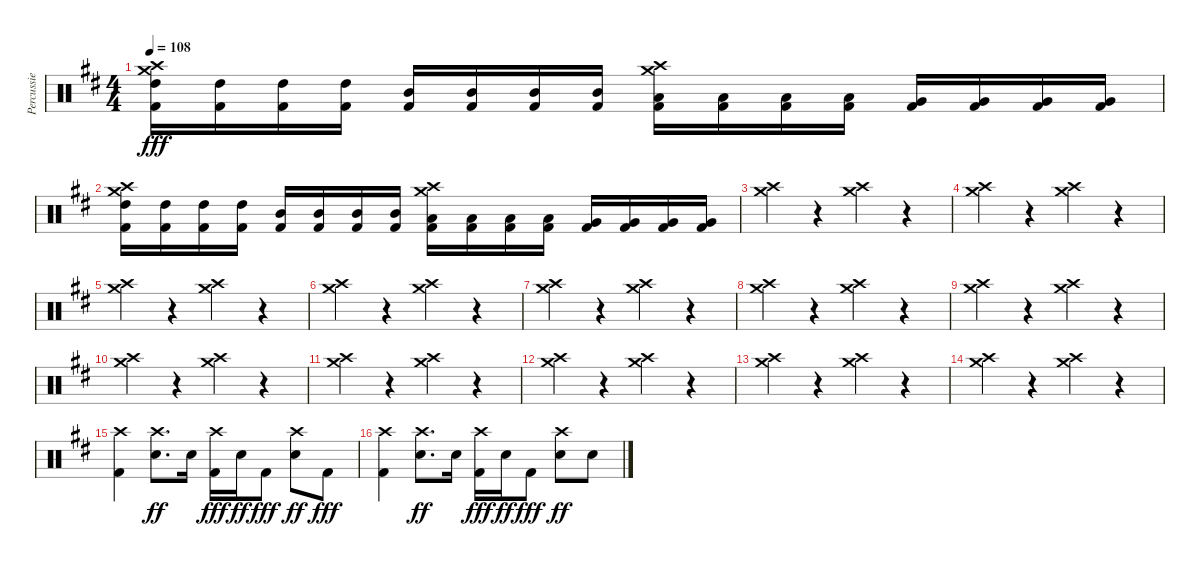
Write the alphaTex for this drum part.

\track ("Percussie" "Percussie") {instrument percussion}
\staff {score}
\articulation defaults
\ts (4 4)
\tempo 108
\clef neutral
\ks d
("Crash high (hit)" "Crash medium (hit)" "High Tom (hit)" "Kick (hit) 2").16{dy fff} ("High Tom (hit)" "Kick (hit) 2").16 ("High Tom (hit)" "Kick (hit) 2").16 ("High Tom (hit)" "Kick (hit) 2").16 ("Mid Tom (hit)" "Kick (hit) 2").16 ("Mid Tom (hit)" "Kick (hit) 2").16 ("Mid Tom (hit)" "Kick (hit) 2").16 ("Mid Tom (hit)" "Kick (hit) 2").16 ("Crash high (hit)" "Crash medium (hit)" "Low Tom (hit)" "Kick (hit) 2").16 ("Low Tom (hit)" "Kick (hit) 2").16 ("Low Tom (hit)" "Kick (hit) 2").16 ("Low Tom (hit)" "Kick (hit) 2").16 ("Very Low Tom (hit)" "Kick (hit) 2").16 ("Very Low Tom (hit)" "Kick (hit) 2").16 ("Very Low Tom (hit)" "Kick (hit) 2").16 ("Very Low Tom (hit)" "Kick (hit) 2").16 |
("Crash high (hit)" "Crash medium (hit)" "High Tom (hit)" "Kick (hit) 2").16 ("High Tom (hit)" "Kick (hit) 2").16 ("High Tom (hit)" "Kick (hit) 2").16 ("High Tom (hit)" "Kick (hit) 2").16 ("Mid Tom (hit)" "Kick (hit) 2").16 ("Mid Tom (hit)" "Kick (hit) 2").16 ("Mid Tom (hit)" "Kick (hit) 2").16 ("Mid Tom (hit)" "Kick (hit) 2").16 ("Crash high (hit)" "Crash medium (hit)" "Low Tom (hit)" "Kick (hit) 2").16 ("Low Tom (hit)" "Kick (hit) 2").16 ("Low Tom (hit)" "Kick (hit) 2").16 ("Low Tom (hit)" "Kick (hit) 2").16 ("Very Low Tom (hit)" "Kick (hit) 2").16 ("Very Low Tom (hit)" "Kick (hit) 2").16 ("Very Low Tom (hit)" "Kick (hit) 2").16 ("Very Low Tom (hit)" "Kick (hit) 2").16 |
("Crash high (hit)" "Crash medium (hit)").4 r.4 ("Crash high (hit)" "Crash medium (hit)").4 r.4 |
("Crash high (hit)" "Crash medium (hit)").4 r.4 ("Crash high (hit)" "Crash medium (hit)").4 r.4 |
("Crash high (hit)" "Crash medium (hit)").4 r.4 ("Crash high (hit)" "Crash medium (hit)").4 r.4 |
("Crash high (hit)" "Crash medium (hit)").4 r.4 ("Crash high (hit)" "Crash medium (hit)").4 r.4 |
("Crash high (hit)" "Crash medium (hit)").4 r.4 ("Crash high (hit)" "Crash medium (hit)").4 r.4 |
("Crash high (hit)" "Crash medium (hit)").4 r.4 ("Crash high (hit)" "Crash medium (hit)").4 r.4 |
("Crash high (hit)" "Crash medium (hit)").4 r.4 ("Crash high (hit)" "Crash medium (hit)").4 r.4 |
("Crash high (hit)" "Crash medium (hit)").4 r.4 ("Crash high (hit)" "Crash medium (hit)").4 r.4 |
("Crash high (hit)" "Crash medium (hit)").4 r.4 ("Crash high (hit)" "Crash medium (hit)").4 r.4 |
("Crash high (hit)" "Crash medium (hit)").4 r.4 ("Crash high (hit)" "Crash medium (hit)").4 r.4 |
("Crash high (hit)" "Crash medium (hit)").4 r.4 ("Crash high (hit)" "Crash medium (hit)").4 r.4 |
("Crash high (hit)" "Crash medium (hit)").4 r.4 ("Crash high (hit)" "Crash medium (hit)").4 r.4 |
("Crash high (hit)" "Kick (hit) 2").4 ("Crash high (hit)" "Snare (hit) 2").8{d dy ff} "Snare (hit) 2".16 ("Crash high (hit)" "Kick (hit) 2").16{dy fff} "Snare (hit) 2".16{dy ff} "Kick (hit) 2".8{dy fff} ("Crash high (hit)" "Snare (hit) 2").8{dy ff} "Kick (hit) 2".8{dy fff} |
("Crash high (hit)" "Kick (hit) 2").4 ("Crash high (hit)" "Snare (hit) 2").8{d dy ff} "Snare (hit) 2".16 ("Crash high (hit)" "Kick (hit) 2").16{dy fff} "Snare (hit) 2".16{dy ff} "Kick (hit) 2".8{dy fff} ("Crash high (hit)" "Snare (hit) 2").8{dy ff} "Snare (hit) 2".8
